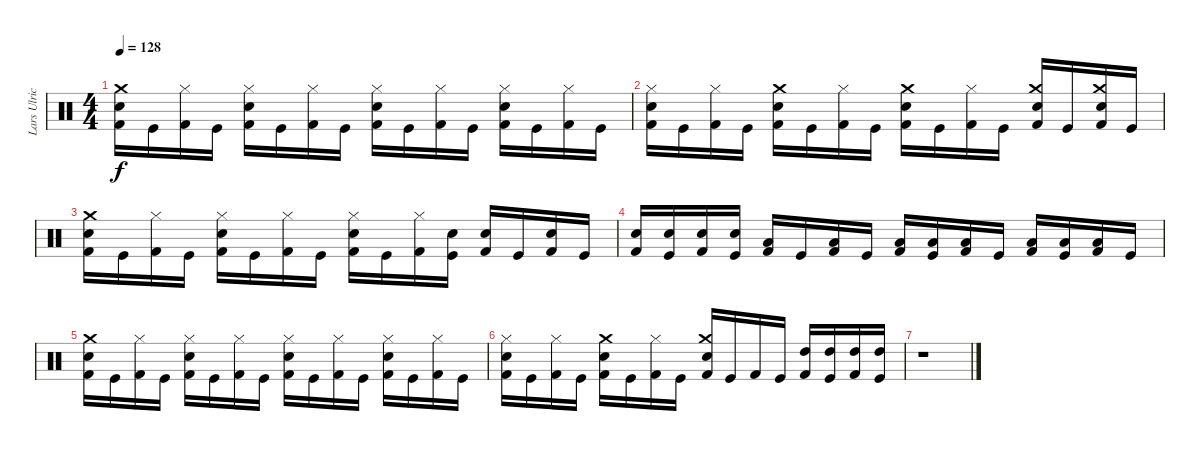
\track ("Lars Ulrich" "Lars Ulric") {instrument percussion}
\staff {score}
\articulation defaults
\ts (4 4)
\tempo 128
\clef neutral
\ks c
("Snare (hit) 2" "Crash medium (hit)" "Kick (hit) 2").16{dy f volume 6} "Kick (hit)".16 ("Hi-Hat (closed)" "Kick (hit) 2").16 "Kick (hit)".16 ("Snare (hit) 2" "Hi-Hat (closed)" "Kick (hit) 2").16 "Kick (hit)".16 ("Hi-Hat (closed)" "Kick (hit) 2").16 "Kick (hit)".16 ("Snare (hit) 2" "Hi-Hat (closed)" "Kick (hit) 2").16 "Kick (hit)".16 ("Hi-Hat (closed)" "Kick (hit) 2").16 "Kick (hit)".16 ("Snare (hit) 2" "Hi-Hat (closed)" "Kick (hit) 2").16 "Kick (hit)".16 ("Hi-Hat (closed)" "Kick (hit) 2").16 "Kick (hit)".16 |
("Snare (hit) 2" "Hi-Hat (closed)" "Kick (hit) 2").16 "Kick (hit)".16 ("Hi-Hat (closed)" "Kick (hit) 2").16 "Kick (hit)".16 ("Crash medium (hit)" "Snare (hit) 2" "Kick (hit) 2").16 "Kick (hit)".16 ("Hi-Hat (closed)" "Kick (hit) 2").16 "Kick (hit)".16 ("Crash medium (hit)" "Snare (hit) 2" "Kick (hit) 2").16 "Kick (hit)".16 ("Hi-Hat (closed)" "Kick (hit) 2").16 "Kick (hit)".16 ("Crash medium (hit)" "Snare (hit) 2" "Kick (hit) 2").16 "Kick (hit)".16 ("Crash medium (hit)" "Snare (hit) 2" "Kick (hit) 2").16 "Kick (hit)".16 |
("Snare (hit) 2" "Crash medium (hit)" "Kick (hit) 2").16{volume 5} "Kick (hit)".16 ("Hi-Hat (closed)" "Kick (hit) 2").16 "Kick (hit)".16 ("Snare (hit) 2" "Hi-Hat (closed)" "Kick (hit) 2").16 "Kick (hit)".16 ("Hi-Hat (closed)" "Kick (hit) 2").16 "Kick (hit)".16 ("Snare (hit) 2" "Hi-Hat (closed)" "Kick (hit) 2").16 "Kick (hit)".16 ("Hi-Hat (closed)" "Kick (hit) 2").16 ("Snare (hit) 2" "Kick (hit)").16 ("Snare (hit) 2" "Kick (hit) 2").16 "Kick (hit)".16 ("Snare (hit) 2" "Kick (hit) 2").16 "Kick (hit)".16 |
("Snare (hit) 2" "Kick (hit) 2").16 ("Snare (hit) 2" "Kick (hit)").16 ("Snare (hit) 2" "Kick (hit) 2").16 ("Snare (hit) 2" "Kick (hit)").16 ("Low Tom (hit)" "Kick (hit) 2").16 "Kick (hit)".16 ("Low Tom (hit)" "Kick (hit) 2").16 "Kick (hit)".16 ("Low Tom (hit)" "Kick (hit) 2").16 ("Low Tom (hit)" "Kick (hit)").16 ("Low Tom (hit)" "Kick (hit) 2").16 "Kick (hit)".16 ("Low Tom (hit)" "Kick (hit) 2").16 ("Low Tom (hit)" "Kick (hit)").16 ("Low Tom (hit)" "Kick (hit) 2").16 "Kick (hit)".16 |
("Crash medium (hit)" "Snare (hit) 2" "Kick (hit) 2").16{volume 2} "Kick (hit)".16 ("Hi-Hat (closed)" "Kick (hit) 2").16 "Kick (hit)".16 ("Snare (hit) 2" "Hi-Hat (closed)" "Kick (hit) 2").16 "Kick (hit)".16 ("Hi-Hat (closed)" "Kick (hit) 2").16 "Kick (hit)".16 ("Snare (hit) 2" "Hi-Hat (closed)" "Kick (hit) 2").16 "Kick (hit)".16 ("Hi-Hat (closed)" "Kick (hit) 2").16 "Kick (hit)".16 ("Snare (hit) 2" "Hi-Hat (closed)" "Kick (hit) 2").16 "Kick (hit)".16 ("Hi-Hat (closed)" "Kick (hit) 2").16 "Kick (hit)".16 |
("Snare (hit) 2" "Hi-Hat (closed)" "Kick (hit) 2").16 "Kick (hit)".16 ("Hi-Hat (closed)" "Kick (hit) 2").16 "Kick (hit)".16 ("Crash medium (hit)" "Snare (hit) 2" "Kick (hit) 2").16 "Kick (hit)".16 ("Hi-Hat (closed)" "Kick (hit) 2").16 "Kick (hit)".16 ("Snare (hit) 2" "Crash medium (hit)" "Kick (hit) 2").16 "Kick (hit)".16 "Kick (hit) 2".16 "Kick (hit)".16 ("High Tom (hit)" "Kick (hit) 2").16 ("High Tom (hit)" "Kick (hit)").16 ("High Tom (hit)" "Kick (hit) 2").16 ("High Tom (hit)" "Kick (hit)").16 |
r.1
